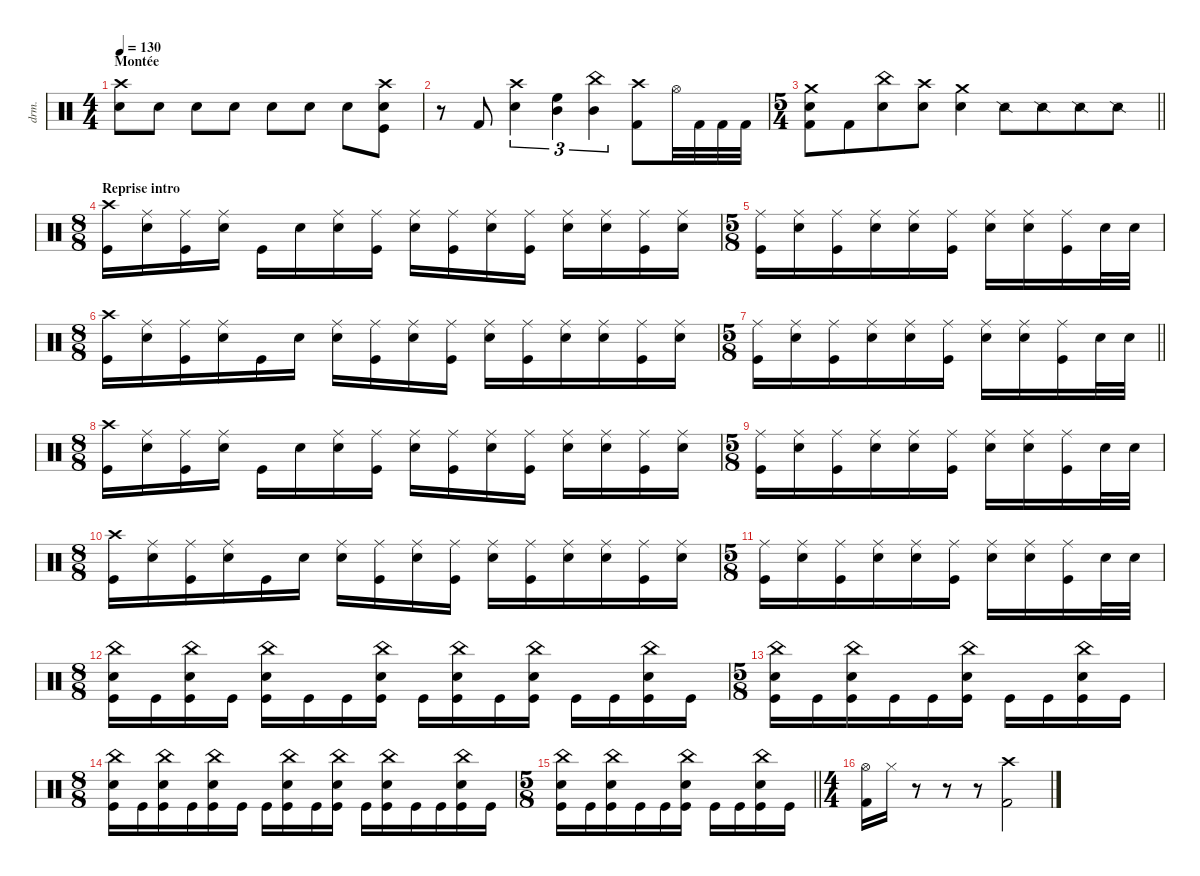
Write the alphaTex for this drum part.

\defaultSystemsLayout 4
\hideDynamics
\bracketExtendMode nobrackets
\otherSystemsTrackNameOrientation horizontal
\track ("Manouche" "drm.") {instrument percussion}
\staff {score}
\articulation defaults
\ts (4 4)
\section ("" "Montée")
\tempo 130
\clef neutral
\ks c
("Crash high (hit)" "Snare (hit) 2").8{dy mf} "Snare (hit) 2".8{dy mp} "Snare (hit) 2".8 "Snare (hit) 2".8 "Snare (hit) 2".8{dy mf} "Snare (hit) 2".8 "Snare (hit) 2".8{dy f} ("Crash high (hit)" "Kick (hit)" "Snare (hit) 2").8 |
r.8 "Kick (hit) 2".8{dy ff} ("Snare (hit) 2" "Crash high (hit)").4{tu (3 2)} ("Mid Tom (hit)" "High Floor Tom (hit)").4{tu (3 2)} ("Mid Tom (hit)" "China (hit)").4{tu (3 2)} ("Crash high (hit)" "Kick (hit) 2").8{dy f} "Hi-Hat (open)".32{dy ff} "Kick (hit) 2".32{dy f} "Kick (hit) 2".32 "Kick (hit) 2".32 |
\ts (5 4)
\beaming (8 6 4)
\barLineRight lightlight
("Kick (hit) 2" "Snare (hit) 2" "Crash medium (hit)").8{dy ff} "Kick (hit) 2".8{dy f} ("Snare (hit) 2" "China (hit)").8 ("Snare (hit) 2" "Crash high (hit)").8 ("Snare (hit) 2" "Crash medium (hit)").4 "Snare (side stick) 2".8 "Snare (side stick) 2".8 "Snare (side stick) 2".8 "Snare (side stick) 2".8 |
\ts (8 8)
\beaming (8 2 2 2 2)
\section ("" "Reprise intro")
("Crash high (hit)" "Kick (hit)").16 ("Snare (hit) 2" "Ride (middle)").16 ("Kick (hit)" "Ride (middle)").16 ("Snare (hit) 2" "Ride (middle)").16 "Kick (hit)".16 "Snare (hit) 2".16 ("Snare (hit) 2" "Ride (middle)").16 ("Kick (hit)" "Ride (middle)").16 ("Snare (hit) 2" "Ride (middle)").16 ("Kick (hit)" "Ride (middle)").16 ("Snare (hit) 2" "Ride (middle)").16 ("Ride (middle)" "Kick (hit)").16 ("Snare (hit) 2" "Ride (middle)").16 ("Snare (hit) 2" "Ride (middle)").16 ("Kick (hit)" "Ride (middle)").16 ("Snare (hit) 2" "Ride (middle)").16 |
\ts (5 8)
\beaming (8 3 2)
("Kick (hit)" "Ride (middle)").16 ("Snare (hit) 2" "Ride (middle)").16 ("Kick (hit)" "Ride (middle)").16 ("Snare (hit) 2" "Ride (middle)").16 ("Snare (hit) 2" "Ride (middle)").16 ("Kick (hit)" "Ride (middle)").16 ("Snare (hit) 2" "Ride (middle)").16 ("Snare (hit) 2" "Ride (middle)").16 ("Kick (hit)" "Ride (middle)").16 "Snare (hit) 2".32 "Snare (hit) 2".32 |
\ts (8 8)
\beaming (8 3 2 3)
("Crash high (hit)" "Kick (hit)").16 ("Snare (hit) 2" "Ride (middle)").16 ("Kick (hit)" "Ride (middle)").16 ("Snare (hit) 2" "Ride (middle)").16 "Kick (hit)".16 "Snare (hit) 2".16 ("Snare (hit) 2" "Ride (middle)").16 ("Kick (hit)" "Ride (middle)").16 ("Snare (hit) 2" "Ride (middle)").16 ("Kick (hit)" "Ride (middle)").16 ("Snare (hit) 2" "Ride (middle)").16 ("Ride (middle)" "Kick (hit)").16 ("Snare (hit) 2" "Ride (middle)").16 ("Snare (hit) 2" "Ride (middle)").16 ("Kick (hit)" "Ride (middle)").16 ("Snare (hit) 2" "Ride (middle)").16 |
\ts (5 8)
\beaming (8 3 2)
\barLineRight lightlight
("Kick (hit)" "Ride (middle)").16 ("Snare (hit) 2" "Ride (middle)").16 ("Kick (hit)" "Ride (middle)").16 ("Snare (hit) 2" "Ride (middle)").16 ("Snare (hit) 2" "Ride (middle)").16 ("Kick (hit)" "Ride (middle)").16 ("Snare (hit) 2" "Ride (middle)").16 ("Snare (hit) 2" "Ride (middle)").16 ("Kick (hit)" "Ride (middle)").16 "Snare (hit) 2".32 "Snare (hit) 2".32 |
\ts (8 8)
\beaming (8 2 2 2 2)
("Crash high (hit)" "Kick (hit)").16 ("Snare (hit) 2" "Ride (middle)").16 ("Kick (hit)" "Ride (middle)").16 ("Snare (hit) 2" "Ride (middle)").16 "Kick (hit)".16 "Snare (hit) 2".16 ("Snare (hit) 2" "Ride (middle)").16 ("Kick (hit)" "Ride (middle)").16 ("Snare (hit) 2" "Ride (middle)").16 ("Kick (hit)" "Ride (middle)").16 ("Snare (hit) 2" "Ride (middle)").16 ("Ride (middle)" "Kick (hit)").16 ("Snare (hit) 2" "Ride (middle)").16 ("Snare (hit) 2" "Ride (middle)").16 ("Kick (hit)" "Ride (middle)").16 ("Snare (hit) 2" "Ride (middle)").16 |
\ts (5 8)
\beaming (8 3 2)
("Kick (hit)" "Ride (middle)").16 ("Snare (hit) 2" "Ride (middle)").16 ("Kick (hit)" "Ride (middle)").16 ("Snare (hit) 2" "Ride (middle)").16 ("Snare (hit) 2" "Ride (middle)").16 ("Kick (hit)" "Ride (middle)").16 ("Snare (hit) 2" "Ride (middle)").16 ("Snare (hit) 2" "Ride (middle)").16 ("Kick (hit)" "Ride (middle)").16 "Snare (hit) 2".32 "Snare (hit) 2".32 |
\ts (8 8)
\beaming (8 3 2 3)
("Crash high (hit)" "Kick (hit)").16 ("Snare (hit) 2" "Ride (middle)").16 ("Kick (hit)" "Ride (middle)").16 ("Snare (hit) 2" "Ride (middle)").16 "Kick (hit)".16 "Snare (hit) 2".16 ("Snare (hit) 2" "Ride (middle)").16 ("Kick (hit)" "Ride (middle)").16 ("Snare (hit) 2" "Ride (middle)").16 ("Kick (hit)" "Ride (middle)").16 ("Snare (hit) 2" "Ride (middle)").16 ("Ride (middle)" "Kick (hit)").16 ("Snare (hit) 2" "Ride (middle)").16 ("Snare (hit) 2" "Ride (middle)").16 ("Kick (hit)" "Ride (middle)").16 ("Snare (hit) 2" "Ride (middle)").16 |
\ts (5 8)
\beaming (8 3 2)
("Kick (hit)" "Ride (middle)").16 ("Snare (hit) 2" "Ride (middle)").16 ("Kick (hit)" "Ride (middle)").16 ("Snare (hit) 2" "Ride (middle)").16 ("Snare (hit) 2" "Ride (middle)").16 ("Kick (hit)" "Ride (middle)").16 ("Snare (hit) 2" "Ride (middle)").16 ("Snare (hit) 2" "Ride (middle)").16 ("Kick (hit)" "Ride (middle)").16 "Snare (hit) 2".32 "Snare (hit) 2".32 |
\ts (8 8)
\beaming (8 2 2 2 2)
("Snare (hit) 2" "China (hit)" "Kick (hit)").16 "Kick (hit)".16 ("Kick (hit)" "Snare (hit) 2" "China (hit)").16 "Kick (hit)".16 ("Kick (hit)" "Snare (hit) 2" "China (hit)").16 "Kick (hit)".16 "Kick (hit)".16 ("Kick (hit)" "Snare (hit) 2" "China (hit)").16 "Kick (hit)".16 ("Kick (hit)" "Snare (hit) 2" "China (hit)").16 "Kick (hit)".16 ("Kick (hit)" "Snare (hit) 2" "China (hit)").16 "Kick (hit)".16 "Kick (hit)".16 ("Kick (hit)" "Snare (hit) 2" "China (hit)").16 "Kick (hit)".16 |
\ts (5 8)
\beaming (8 3 2)
("Kick (hit)" "Snare (hit) 2" "China (hit)").16 "Kick (hit)".16 ("Kick (hit)" "Snare (hit) 2" "China (hit)").16 "Kick (hit)".16 "Kick (hit)".16 ("Kick (hit)" "Snare (hit) 2" "China (hit)").16 "Kick (hit)".16 "Kick (hit)".16 ("Kick (hit)" "Snare (hit) 2" "China (hit)").16 "Kick (hit)".16 |
\ts (8 8)
\beaming (8 3 2 3)
("Snare (hit) 2" "China (hit)" "Kick (hit)").16 "Kick (hit)".16 ("Kick (hit)" "Snare (hit) 2" "China (hit)").16 "Kick (hit)".16 ("Kick (hit)" "Snare (hit) 2" "China (hit)").16 "Kick (hit)".16 "Kick (hit)".16 ("Kick (hit)" "Snare (hit) 2" "China (hit)").16 "Kick (hit)".16 ("Kick (hit)" "Snare (hit) 2" "China (hit)").16 "Kick (hit)".16 ("Kick (hit)" "Snare (hit) 2" "China (hit)").16 "Kick (hit)".16 "Kick (hit)".16 ("Kick (hit)" "Snare (hit) 2" "China (hit)").16 "Kick (hit)".16 |
\ts (5 8)
\beaming (8 3 2)
\barLineRight lightlight
("Kick (hit)" "Snare (hit) 2" "China (hit)").16 "Kick (hit)".16 ("Kick (hit)" "Snare (hit) 2" "China (hit)").16 "Kick (hit)".16 "Kick (hit)".16 ("Kick (hit)" "Snare (hit) 2" "China (hit)").16 "Kick (hit)".16 "Kick (hit)".16 ("Kick (hit)" "Snare (hit) 2" "China (hit)").16 "Kick (hit)".16 |
\ts (4 4)
\beaming (8 2 2 2 2)
("Kick (hit) 2" "Hi-Hat (open)").16 "Hi-Hat (closed)".16 r.8 r.8 r.8 ("Kick (hit) 2" "Crash high (hit)").2{dy ff}
